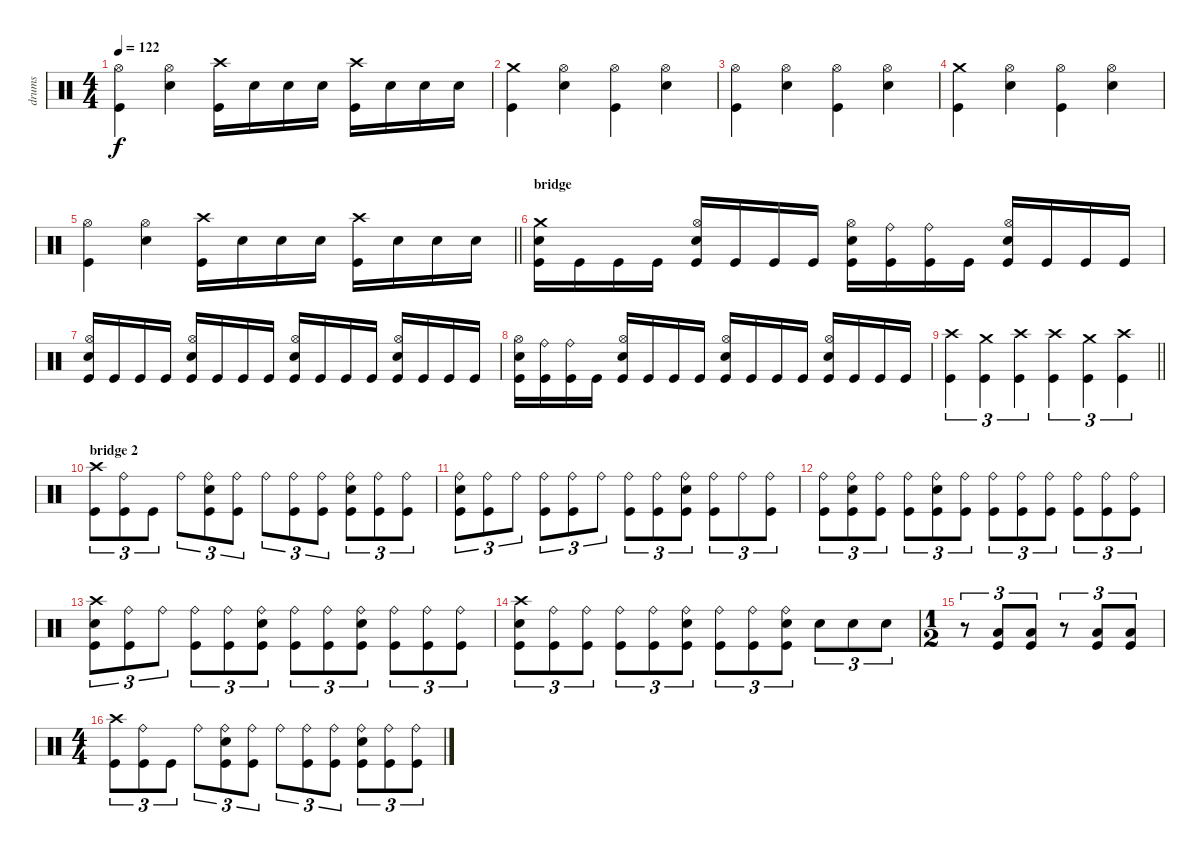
\track ("drums" "drums") {instrument percussion}
\staff {score}
\articulation defaults
\ts (4 4)
\tempo 122
\clef neutral
\ks c
("Kick (hit)" "Hi-Hat (open)").4{dy f} ("Snare (hit) 2" "Hi-Hat (open)").4 ("Kick (hit)" "Crash high (hit)").16 "Snare (hit) 2".16 "Snare (hit) 2".16 "Snare (hit) 2".16 ("Kick (hit)" "Crash high (hit)").16 "Snare (hit) 2".16 "Snare (hit) 2".16 "Snare (hit) 2".16 |
("Kick (hit)" "Crash medium (hit)").4 ("Snare (hit) 2" "Hi-Hat (open)").4 ("Kick (hit)" "Hi-Hat (open)").4 ("Snare (hit) 2" "Hi-Hat (open)").4 |
("Kick (hit)" "Hi-Hat (open)").4 ("Snare (hit) 2" "Hi-Hat (open)").4 ("Kick (hit)" "Hi-Hat (open)").4 ("Snare (hit) 2" "Hi-Hat (open)").4 |
("Kick (hit)" "Crash medium (hit)").4 ("Snare (hit) 2" "Hi-Hat (open)").4 ("Kick (hit)" "Hi-Hat (open)").4 ("Snare (hit) 2" "Hi-Hat (open)").4 |
\barLineRight lightlight
("Kick (hit)" "Hi-Hat (open)").4 ("Snare (hit) 2" "Hi-Hat (open)").4 ("Kick (hit)" "Crash high (hit)").16 "Snare (hit) 2".16 "Snare (hit) 2".16 "Snare (hit) 2".16 ("Kick (hit)" "Crash high (hit)").16 "Snare (hit) 2".16 "Snare (hit) 2".16 "Snare (hit) 2".16 |
\section ("" "bridge")
("Snare (hit) 2" "Kick (hit)" "Crash medium (hit)").16 "Kick (hit)".16 "Kick (hit)".16 "Kick (hit)".16 ("Snare (hit) 2" "Kick (hit)" "Hi-Hat (open)").16 "Kick (hit)".16 "Kick (hit)".16 "Kick (hit)".16 ("Snare (hit) 2" "Kick (hit)" "Hi-Hat (open)").16 ("Kick (hit)" "Ride (bell)").16 ("Kick (hit)" "Ride (bell)").16 "Kick (hit)".16 ("Snare (hit) 2" "Kick (hit)" "Hi-Hat (open)").16 "Kick (hit)".16 "Kick (hit)".16 "Kick (hit)".16 |
("Snare (hit) 2" "Kick (hit)" "Hi-Hat (open)").16 "Kick (hit)".16 "Kick (hit)".16 "Kick (hit)".16 ("Snare (hit) 2" "Kick (hit)" "Hi-Hat (open)").16 "Kick (hit)".16 "Kick (hit)".16 "Kick (hit)".16 ("Snare (hit) 2" "Kick (hit)" "Hi-Hat (open)").16 "Kick (hit)".16 "Kick (hit)".16 "Kick (hit)".16 ("Snare (hit) 2" "Kick (hit)" "Hi-Hat (open)").16 "Kick (hit)".16 "Kick (hit)".16 "Kick (hit)".16 |
("Snare (hit) 2" "Kick (hit)" "Hi-Hat (open)").16 ("Kick (hit)" "Ride (bell)").16 ("Kick (hit)" "Ride (bell)").16 "Kick (hit)".16 ("Snare (hit) 2" "Kick (hit)" "Hi-Hat (open)").16 "Kick (hit)".16 "Kick (hit)".16 "Kick (hit)".16 ("Snare (hit) 2" "Kick (hit)" "Hi-Hat (open)").16 "Kick (hit)".16 "Kick (hit)".16 "Kick (hit)".16 ("Snare (hit) 2" "Kick (hit)" "Hi-Hat (open)").16 "Kick (hit)".16 "Kick (hit)".16 "Kick (hit)".16 |
\barLineRight lightlight
("Kick (hit)" "Crash high (hit)").4{tu (3 2)} ("Kick (hit)" "Crash medium (hit)").4{tu (3 2)} ("Kick (hit)" "Crash high (hit)").4{tu (3 2)} ("Kick (hit)" "Crash high (hit)").4{tu (3 2)} ("Kick (hit)" "Crash medium (hit)").4{tu (3 2)} ("Kick (hit)" "Crash high (hit)").4{tu (3 2)} |
\section ("" "bridge 2")
("Kick (hit)" "Crash high (hit)").8{tu (3 2)} ("Kick (hit)" "Ride (bell)").8{tu (3 2)} "Kick (hit)".8{tu (3 2)} "Ride (bell)".8{tu (3 2)} ("Snare (hit) 2" "Kick (hit)" "Ride (bell)").8{tu (3 2)} ("Kick (hit)" "Ride (bell)").8{tu (3 2)} "Ride (bell)".8{tu (3 2)} ("Kick (hit)" "Ride (bell)").8{tu (3 2)} ("Kick (hit)" "Ride (bell)").8{tu (3 2)} ("Snare (hit) 2" "Kick (hit)" "Ride (bell)").8{tu (3 2)} ("Kick (hit)" "Ride (bell)").8{tu (3 2)} ("Kick (hit)" "Ride (bell)").8{tu (3 2)} |
("Snare (hit) 2" "Kick (hit)" "Ride (bell)").8{tu (3 2)} ("Kick (hit)" "Ride (bell)").8{tu (3 2)} "Ride (bell)".8{tu (3 2)} ("Kick (hit)" "Ride (bell)").8{tu (3 2)} ("Kick (hit)" "Ride (bell)").8{tu (3 2)} "Ride (bell)".8{tu (3 2)} ("Kick (hit)" "Ride (bell)").8{tu (3 2)} ("Kick (hit)" "Ride (bell)").8{tu (3 2)} ("Snare (hit) 2" "Kick (hit)" "Ride (bell)").8{tu (3 2)} ("Kick (hit)" "Ride (bell)").8{tu (3 2)} "Ride (bell)".8{tu (3 2)} ("Kick (hit)" "Ride (bell)").8{tu (3 2)} |
("Kick (hit)" "Ride (bell)").8{tu (3 2)} ("Snare (hit) 2" "Kick (hit)" "Ride (bell)").8{tu (3 2)} ("Kick (hit)" "Ride (bell)").8{tu (3 2)} ("Kick (hit)" "Ride (bell)").8{tu (3 2)} ("Snare (hit) 2" "Kick (hit)" "Ride (bell)").8{tu (3 2)} ("Kick (hit)" "Ride (bell)").8{tu (3 2)} ("Kick (hit)" "Ride (bell)").8{tu (3 2)} ("Kick (hit)" "Ride (bell)").8{tu (3 2)} ("Kick (hit)" "Ride (bell)").8{tu (3 2)} ("Kick (hit)" "Ride (bell)").8{tu (3 2)} ("Kick (hit)" "Ride (bell)").8{tu (3 2)} ("Kick (hit)" "Ride (bell)").8{tu (3 2)} |
("Snare (hit) 2" "Kick (hit)" "Crash high (hit)").8{tu (3 2)} ("Kick (hit)" "Ride (bell)").8{tu (3 2)} "Ride (bell)".8{tu (3 2)} ("Kick (hit)" "Ride (bell)").8{tu (3 2)} ("Kick (hit)" "Ride (bell)").8{tu (3 2)} ("Snare (hit) 2" "Kick (hit)" "Ride (bell)").8{tu (3 2)} ("Kick (hit)" "Ride (bell)").8{tu (3 2)} ("Kick (hit)" "Ride (bell)").8{tu (3 2)} ("Snare (hit) 2" "Kick (hit)" "Ride (bell)").8{tu (3 2)} ("Kick (hit)" "Ride (bell)").8{tu (3 2)} ("Kick (hit)" "Ride (bell)").8{tu (3 2)} ("Kick (hit)" "Ride (bell)").8{tu (3 2)} |
("Snare (hit) 2" "Kick (hit)" "Crash high (hit)").8{tu (3 2)} ("Kick (hit)" "Ride (bell)").8{tu (3 2)} ("Kick (hit)" "Ride (bell)").8{tu (3 2)} ("Kick (hit)" "Ride (bell)").8{tu (3 2)} ("Kick (hit)" "Ride (bell)").8{tu (3 2)} ("Snare (hit) 2" "Kick (hit)" "Ride (bell)").8{tu (3 2)} ("Kick (hit)" "Ride (bell)").8{tu (3 2)} ("Kick (hit)" "Ride (bell)").8{tu (3 2)} ("Snare (hit) 2" "Kick (hit)" "Ride (bell)").8{tu (3 2)} "Snare (hit) 2".8{tu (3 2)} "Snare (hit) 2".8{tu (3 2)} "Snare (hit) 2".8{tu (3 2)} |
\ts (1 2)
r.8{tu (3 2)} ("Kick (hit)" "Low Floor Tom (hit)").8{tu (3 2)} ("Kick (hit)" "Low Floor Tom (hit)").8{tu (3 2)} r.8{tu (3 2)} ("Kick (hit)" "Low Floor Tom (hit)").8{tu (3 2)} ("Kick (hit)" "Low Floor Tom (hit)").8{tu (3 2)} |
\ts (4 4)
("Kick (hit)" "Crash high (hit)").8{tu (3 2)} ("Kick (hit)" "Ride (bell)").8{tu (3 2)} "Kick (hit)".8{tu (3 2)} "Ride (bell)".8{tu (3 2)} ("Snare (hit) 2" "Kick (hit)" "Ride (bell)").8{tu (3 2)} ("Kick (hit)" "Ride (bell)").8{tu (3 2)} "Ride (bell)".8{tu (3 2)} ("Kick (hit)" "Ride (bell)").8{tu (3 2)} ("Kick (hit)" "Ride (bell)").8{tu (3 2)} ("Snare (hit) 2" "Kick (hit)" "Ride (bell)").8{tu (3 2)} ("Kick (hit)" "Ride (bell)").8{tu (3 2)} ("Kick (hit)" "Ride (bell)").8{tu (3 2)}
